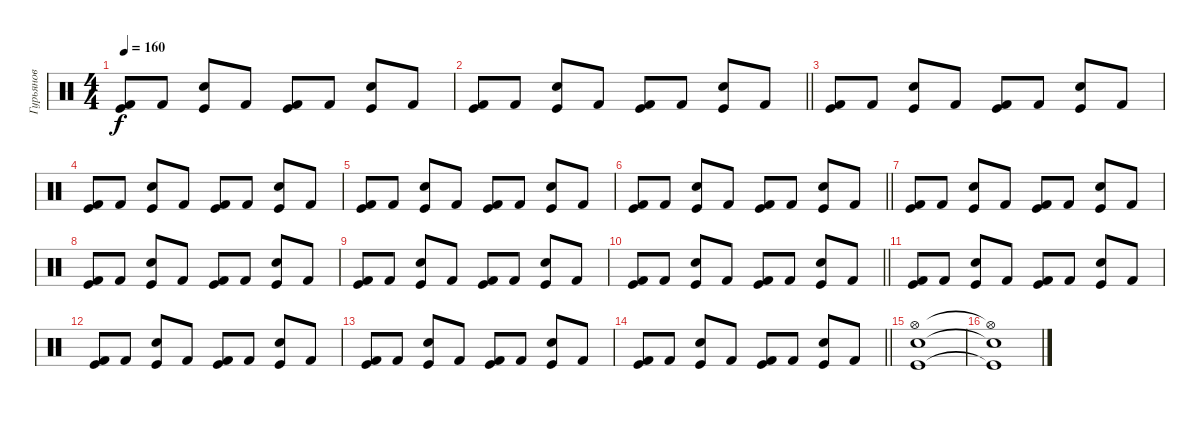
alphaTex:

\track ("Гурьянов" "Гурьянов") {instrument percussion}
\staff {score}
\articulation defaults
\ts (4 4)
\tempo 160
\clef neutral
\ks c
("Kick (hit)" "Kick (hit) 2").8{dy f} "Kick (hit) 2".8 ("Snare (hit) 2" "Kick (hit)").8 "Kick (hit) 2".8 ("Kick (hit)" "Kick (hit) 2").8 "Kick (hit) 2".8 ("Snare (hit) 2" "Kick (hit)").8 "Kick (hit) 2".8 |
\barLineRight lightlight
("Kick (hit)" "Kick (hit) 2").8 "Kick (hit) 2".8 ("Snare (hit) 2" "Kick (hit)").8 "Kick (hit) 2".8 ("Kick (hit)" "Kick (hit) 2").8 "Kick (hit) 2".8 ("Snare (hit) 2" "Kick (hit)").8 "Kick (hit) 2".8 |
("Kick (hit)" "Kick (hit) 2").8 "Kick (hit) 2".8 ("Snare (hit) 2" "Kick (hit)").8 "Kick (hit) 2".8 ("Kick (hit)" "Kick (hit) 2").8 "Kick (hit) 2".8 ("Snare (hit) 2" "Kick (hit)").8 "Kick (hit) 2".8 |
("Kick (hit)" "Kick (hit) 2").8 "Kick (hit) 2".8 ("Snare (hit) 2" "Kick (hit)").8 "Kick (hit) 2".8 ("Kick (hit)" "Kick (hit) 2").8 "Kick (hit) 2".8 ("Snare (hit) 2" "Kick (hit)").8 "Kick (hit) 2".8 |
("Kick (hit)" "Kick (hit) 2").8 "Kick (hit) 2".8 ("Snare (hit) 2" "Kick (hit)").8 "Kick (hit) 2".8 ("Kick (hit)" "Kick (hit) 2").8 "Kick (hit) 2".8 ("Snare (hit) 2" "Kick (hit)").8 "Kick (hit) 2".8 |
\barLineRight lightlight
("Kick (hit)" "Kick (hit) 2").8 "Kick (hit) 2".8 ("Snare (hit) 2" "Kick (hit)").8 "Kick (hit) 2".8 ("Kick (hit)" "Kick (hit) 2").8 "Kick (hit) 2".8 ("Snare (hit) 2" "Kick (hit)").8 "Kick (hit) 2".8 |
("Kick (hit)" "Kick (hit) 2").8 "Kick (hit) 2".8 ("Snare (hit) 2" "Kick (hit)").8 "Kick (hit) 2".8 ("Kick (hit)" "Kick (hit) 2").8 "Kick (hit) 2".8 ("Snare (hit) 2" "Kick (hit)").8 "Kick (hit) 2".8 |
("Kick (hit)" "Kick (hit) 2").8 "Kick (hit) 2".8 ("Snare (hit) 2" "Kick (hit)").8 "Kick (hit) 2".8 ("Kick (hit)" "Kick (hit) 2").8 "Kick (hit) 2".8 ("Snare (hit) 2" "Kick (hit)").8 "Kick (hit) 2".8 |
("Kick (hit)" "Kick (hit) 2").8 "Kick (hit) 2".8 ("Snare (hit) 2" "Kick (hit)").8 "Kick (hit) 2".8 ("Kick (hit)" "Kick (hit) 2").8 "Kick (hit) 2".8 ("Snare (hit) 2" "Kick (hit)").8 "Kick (hit) 2".8 |
\barLineRight lightlight
("Kick (hit)" "Kick (hit) 2").8 "Kick (hit) 2".8 ("Snare (hit) 2" "Kick (hit)").8 "Kick (hit) 2".8 ("Kick (hit)" "Kick (hit) 2").8 "Kick (hit) 2".8 ("Snare (hit) 2" "Kick (hit)").8 "Kick (hit) 2".8 |
("Kick (hit)" "Kick (hit) 2").8 "Kick (hit) 2".8 ("Snare (hit) 2" "Kick (hit)").8 "Kick (hit) 2".8 ("Kick (hit)" "Kick (hit) 2").8 "Kick (hit) 2".8 ("Snare (hit) 2" "Kick (hit)").8 "Kick (hit) 2".8 |
("Kick (hit)" "Kick (hit) 2").8 "Kick (hit) 2".8 ("Snare (hit) 2" "Kick (hit)").8 "Kick (hit) 2".8 ("Kick (hit)" "Kick (hit) 2").8 "Kick (hit) 2".8 ("Snare (hit) 2" "Kick (hit)").8 "Kick (hit) 2".8 |
("Kick (hit)" "Kick (hit) 2").8 "Kick (hit) 2".8 ("Snare (hit) 2" "Kick (hit)").8 "Kick (hit) 2".8 ("Kick (hit)" "Kick (hit) 2").8 "Kick (hit) 2".8 ("Snare (hit) 2" "Kick (hit)").8 "Kick (hit) 2".8 |
\barLineRight lightlight
("Kick (hit)" "Kick (hit) 2").8 "Kick (hit) 2".8 ("Snare (hit) 2" "Kick (hit)").8 "Kick (hit) 2".8 ("Kick (hit)" "Kick (hit) 2").8 "Kick (hit) 2".8 ("Snare (hit) 2" "Kick (hit)").8 "Kick (hit) 2".8 |
("Hi-Hat (open)" "Snare (hit) 2" "Kick (hit)").1 |
("Hi-Hat (open)"{t} "Snare (hit) 2"{t} "Kick (hit)"{t}).1
